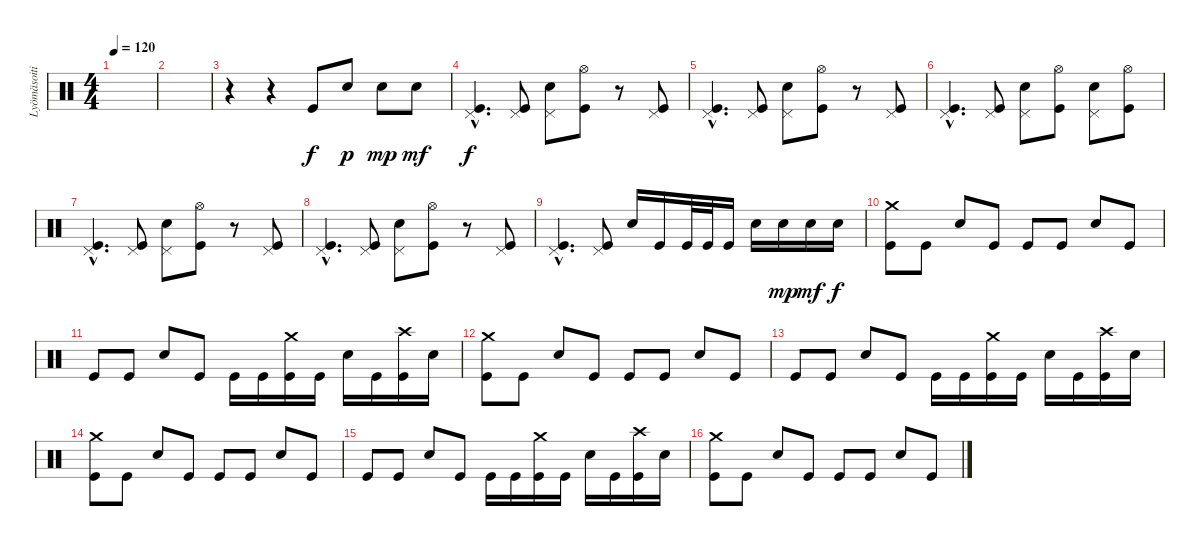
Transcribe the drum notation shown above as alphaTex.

\track ("Lyömäsoitin" "Lyömäsoiti") {instrument percussion}
\staff {score}
\articulation defaults
\ts (4 4)
\tempo 120
\clef neutral
\ks c
|
|
r.4 r.4 "Kick (hit)".8 "Snare (hit) 2".8{dy p} "Snare (hit) 2".8{dy mp} "Snare (hit) 2".8{dy mf} |
("Pedal Hi-Hat (hit)"{hac} "Kick (hit)"{hac}).4{d dy f} ("Pedal Hi-Hat (hit)" "Kick (hit)").8 ("Pedal Hi-Hat (hit)" "Electric Snare (hit)").8 ("Hi-Hat (open)" "Kick (hit)").8 r.8 ("Pedal Hi-Hat (hit)" "Kick (hit)").8 |
("Pedal Hi-Hat (hit)"{hac} "Kick (hit)"{hac}).4{d} ("Pedal Hi-Hat (hit)" "Kick (hit)").8 ("Pedal Hi-Hat (hit)" "Electric Snare (hit)").8 ("Hi-Hat (open)" "Kick (hit)").8 r.8 ("Pedal Hi-Hat (hit)" "Kick (hit)").8 |
("Pedal Hi-Hat (hit)"{hac} "Kick (hit)"{hac}).4{d} ("Pedal Hi-Hat (hit)" "Kick (hit)").8 ("Pedal Hi-Hat (hit)" "Electric Snare (hit)").8 ("Hi-Hat (open)" "Kick (hit)").8 ("Pedal Hi-Hat (hit)" "Electric Snare (hit)").8 ("Hi-Hat (open)" "Kick (hit)").8 |
("Pedal Hi-Hat (hit)"{hac} "Kick (hit)"{hac}).4{d} ("Pedal Hi-Hat (hit)" "Kick (hit)").8 ("Pedal Hi-Hat (hit)" "Electric Snare (hit)").8 ("Hi-Hat (open)" "Kick (hit)").8 r.8 ("Pedal Hi-Hat (hit)" "Kick (hit)").8 |
("Pedal Hi-Hat (hit)"{hac} "Kick (hit)"{hac}).4{d} ("Pedal Hi-Hat (hit)" "Kick (hit)").8 ("Pedal Hi-Hat (hit)" "Electric Snare (hit)").8 ("Hi-Hat (open)" "Kick (hit)").8 r.8 ("Pedal Hi-Hat (hit)" "Kick (hit)").8 |
("Pedal Hi-Hat (hit)"{hac} "Kick (hit)"{hac}).4{d} ("Pedal Hi-Hat (hit)" "Kick (hit)").8 "Electric Snare (hit)".16 "Kick (hit)".16 "Kick (hit)".32 "Kick (hit)".32 "Kick (hit)".16 "Electric Snare (hit)".16 "Electric Snare (hit)".16{dy mp} "Electric Snare (hit)".16{dy mf} "Electric Snare (hit)".16{dy f} |
("Kick (hit)" "Crash medium (hit)").8 "Kick (hit)".8 "Electric Snare (hit)".8 "Kick (hit)".8 "Kick (hit)".8 "Kick (hit)".8 "Electric Snare (hit)".8 "Kick (hit)".8 |
"Kick (hit)".8 "Kick (hit)".8 "Electric Snare (hit)".8 "Kick (hit)".8 "Kick (hit)".16 "Kick (hit)".16 ("Kick (hit)" "Crash medium (hit)").16 "Kick (hit)".16 "Electric Snare (hit)".16 "Kick (hit)".16 ("Kick (hit)" "Crash high (hit)").16 "Electric Snare (hit)".16 |
("Kick (hit)" "Crash medium (hit)").8 "Kick (hit)".8 "Electric Snare (hit)".8 "Kick (hit)".8 "Kick (hit)".8 "Kick (hit)".8 "Electric Snare (hit)".8 "Kick (hit)".8 |
"Kick (hit)".8 "Kick (hit)".8 "Electric Snare (hit)".8 "Kick (hit)".8 "Kick (hit)".16 "Kick (hit)".16 ("Kick (hit)" "Crash medium (hit)").16 "Kick (hit)".16 "Electric Snare (hit)".16 "Kick (hit)".16 ("Kick (hit)" "Crash high (hit)").16 "Electric Snare (hit)".16 |
("Kick (hit)" "Crash medium (hit)").8 "Kick (hit)".8 "Electric Snare (hit)".8 "Kick (hit)".8 "Kick (hit)".8 "Kick (hit)".8 "Electric Snare (hit)".8 "Kick (hit)".8 |
"Kick (hit)".8 "Kick (hit)".8 "Electric Snare (hit)".8 "Kick (hit)".8 "Kick (hit)".16 "Kick (hit)".16 ("Kick (hit)" "Crash medium (hit)").16 "Kick (hit)".16 "Electric Snare (hit)".16 "Kick (hit)".16 ("Kick (hit)" "Crash high (hit)").16 "Electric Snare (hit)".16 |
("Kick (hit)" "Crash medium (hit)").8 "Kick (hit)".8 "Electric Snare (hit)".8 "Kick (hit)".8 "Kick (hit)".8 "Kick (hit)".8 "Electric Snare (hit)".8 "Kick (hit)".8
